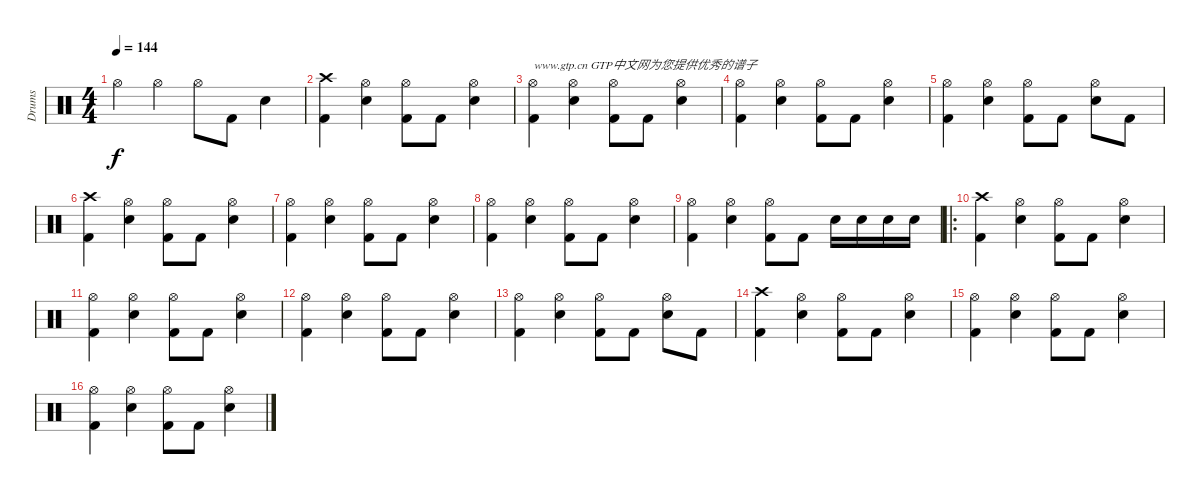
\track ("Drums" "Drums") {instrument percussion}
\staff {score}
\articulation defaults
\ts (4 4)
\tempo 144
\clef neutral
\ks c "Hi-Hat (open)".4{dy f} "Hi-Hat (open)".4 "Hi-Hat (open)".8 "Kick (hit) 2".8 "Snare (hit) 2".4
|
("Kick (hit) 2" "Crash high (hit)").4 ("Snare (hit) 2" "Hi-Hat (open)").4 ("Kick (hit) 2" "Hi-Hat (open)").8 "Kick (hit) 2".8 ("Snare (hit) 2" "Hi-Hat (open)").4 |
("Kick (hit) 2" "Hi-Hat (open)").4{txt "www.gtp.cn GTP中文网为您提供优秀的谱子"} ("Snare (hit) 2" "Hi-Hat (open)").4 ("Kick (hit) 2" "Hi-Hat (open)").8 "Kick (hit) 2".8 ("Snare (hit) 2" "Hi-Hat (open)").4 |
("Kick (hit) 2" "Hi-Hat (open)").4 ("Snare (hit) 2" "Hi-Hat (open)").4 ("Kick (hit) 2" "Hi-Hat (open)").8 "Kick (hit) 2".8 ("Snare (hit) 2" "Hi-Hat (open)").4 |
("Kick (hit) 2" "Hi-Hat (open)").4 ("Snare (hit) 2" "Hi-Hat (open)").4 ("Kick (hit) 2" "Hi-Hat (open)").8 "Kick (hit) 2".8 ("Snare (hit) 2" "Hi-Hat (open)").8 "Kick (hit) 2".8 |
("Kick (hit) 2" "Crash high (hit)").4 ("Snare (hit) 2" "Hi-Hat (open)").4 ("Kick (hit) 2" "Hi-Hat (open)").8 "Kick (hit) 2".8 ("Snare (hit) 2" "Hi-Hat (open)").4 |
("Kick (hit) 2" "Hi-Hat (open)").4 ("Snare (hit) 2" "Hi-Hat (open)").4 ("Kick (hit) 2" "Hi-Hat (open)").8 "Kick (hit) 2".8 ("Snare (hit) 2" "Hi-Hat (open)").4 |
("Kick (hit) 2" "Hi-Hat (open)").4 ("Snare (hit) 2" "Hi-Hat (open)").4 ("Kick (hit) 2" "Hi-Hat (open)").8 "Kick (hit) 2".8 ("Snare (hit) 2" "Hi-Hat (open)").4 |
("Kick (hit) 2" "Hi-Hat (open)").4 ("Snare (hit) 2" "Hi-Hat (open)").4 ("Kick (hit) 2" "Hi-Hat (open)").8 "Kick (hit) 2".8 "Snare (hit) 2".16 "Snare (hit) 2".16 "Snare (hit) 2".16 "Snare (hit) 2".16 |
\ro
("Kick (hit) 2" "Crash high (hit)").4 ("Snare (hit) 2" "Hi-Hat (open)").4 ("Kick (hit) 2" "Hi-Hat (open)").8 "Kick (hit) 2".8 ("Snare (hit) 2" "Hi-Hat (open)").4 |
("Kick (hit) 2" "Hi-Hat (open)").4 ("Snare (hit) 2" "Hi-Hat (open)").4 ("Kick (hit) 2" "Hi-Hat (open)").8 "Kick (hit) 2".8 ("Snare (hit) 2" "Hi-Hat (open)").4 |
("Kick (hit) 2" "Hi-Hat (open)").4 ("Snare (hit) 2" "Hi-Hat (open)").4 ("Kick (hit) 2" "Hi-Hat (open)").8 "Kick (hit) 2".8 ("Snare (hit) 2" "Hi-Hat (open)").4 |
("Kick (hit) 2" "Hi-Hat (open)").4 ("Snare (hit) 2" "Hi-Hat (open)").4 ("Kick (hit) 2" "Hi-Hat (open)").8 "Kick (hit) 2".8 ("Snare (hit) 2" "Hi-Hat (open)").8 "Kick (hit) 2".8 |
("Kick (hit) 2" "Crash high (hit)").4 ("Snare (hit) 2" "Hi-Hat (open)").4 ("Kick (hit) 2" "Hi-Hat (open)").8 "Kick (hit) 2".8 ("Snare (hit) 2" "Hi-Hat (open)").4 |
("Kick (hit) 2" "Hi-Hat (open)").4 ("Snare (hit) 2" "Hi-Hat (open)").4 ("Kick (hit) 2" "Hi-Hat (open)").8 "Kick (hit) 2".8 ("Snare (hit) 2" "Hi-Hat (open)").4 |
("Kick (hit) 2" "Hi-Hat (open)").4 ("Snare (hit) 2" "Hi-Hat (open)").4 ("Kick (hit) 2" "Hi-Hat (open)").8 "Kick (hit) 2".8 ("Snare (hit) 2" "Hi-Hat (open)").4
